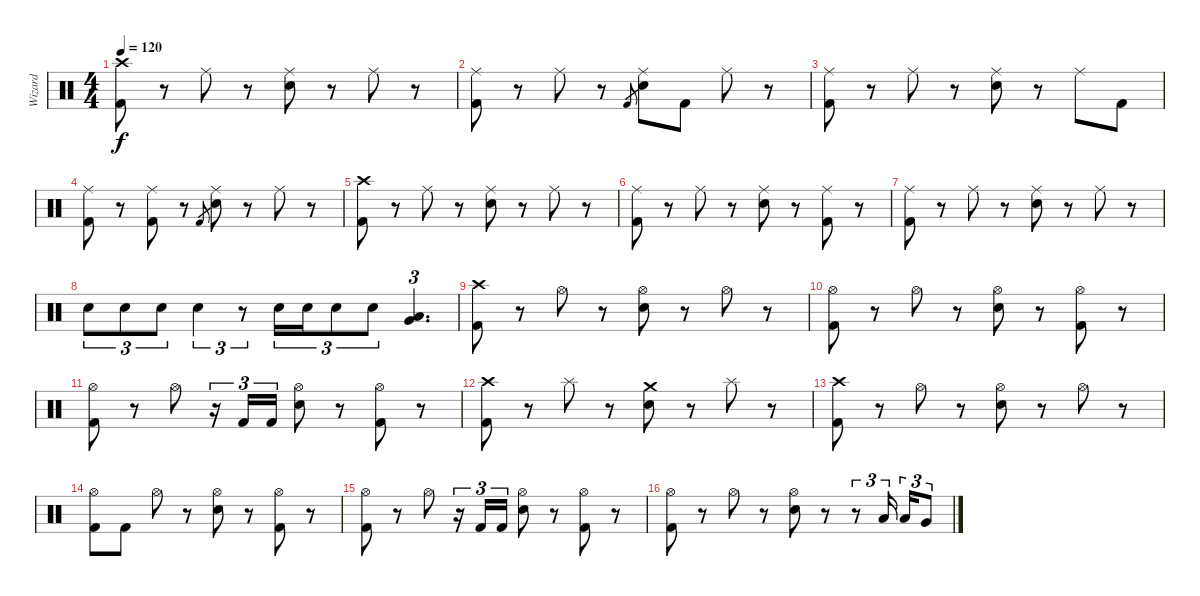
\track ("Wizard" "Wizard") {instrument percussion}
\staff {score}
\articulation defaults
\ts (4 4)
\tempo 120
\clef neutral
\ks c
("Crash high (hit)" "Kick (hit) 2").8{dy f} r.8 "Ride (middle)".8 r.8 ("Ride (middle)" "Snare (hit) 2").8 r.8 "Ride (middle)".8 r.8 |
("Ride (middle)" "Kick (hit) 2").8 r.8 "Ride (middle)".8 r.8 "Kick (hit) 2".8{gr} ("Ride (middle)" "Snare (hit) 2").8 "Kick (hit) 2".8 "Ride (middle)".8 r.8 |
("Ride (middle)" "Kick (hit) 2").8 r.8 "Ride (middle)".8 r.8 ("Ride (middle)" "Snare (hit) 2").8 r.8 "Ride (middle)".8 "Kick (hit) 2".8 |
("Ride (middle)" "Kick (hit) 2").8 r.8 ("Ride (middle)" "Kick (hit) 2").8 r.8 "Kick (hit) 2".8{gr} ("Ride (middle)" "Snare (hit) 2").8 r.8 "Ride (middle)".8 r.8 |
("Crash high (hit)" "Kick (hit) 2").8 r.8 "Ride (middle)".8 r.8 ("Ride (middle)" "Snare (hit) 2").8 r.8 "Ride (middle)".8 r.8 |
("Ride (middle)" "Kick (hit) 2").8 r.8 "Ride (middle)".8 r.8 ("Ride (middle)" "Snare (hit) 2").8 r.8 ("Ride (middle)" "Kick (hit) 2").8 r.8 |
("Ride (middle)" "Kick (hit) 2").8 r.8 "Ride (middle)".8 r.8 ("Ride (middle)" "Snare (hit) 2").8 r.8 "Ride (middle)".8 r.8 |
"Snare (hit) 2".8{tu (3 2)} "Snare (hit) 2".8{tu (3 2)} "Snare (hit) 2".8{tu (3 2)} "Snare (hit) 2".4{tu (3 2)} r.8{tu (3 2)} "Snare (hit) 2".16{tu (3 2)} "Snare (hit) 2".16{tu (3 2)} "Snare (hit) 2".8{tu (3 2)} "Snare (hit) 2".8{tu (3 2)} ("Low Tom (hit)" "Very Low Tom (hit)").4{d tu (3 2)} |
("Crash high (hit)" "Kick (hit) 2").8 r.8 "Hi-Hat (open)".8 r.8 ("Hi-Hat (open)" "Snare (hit) 2").8 r.8 "Hi-Hat (open)".8 r.8 |
("Hi-Hat (open)" "Kick (hit) 2").8 r.8 "Hi-Hat (open)".8 r.8 ("Hi-Hat (open)" "Snare (hit) 2").8 r.8 ("Hi-Hat (open)" "Kick (hit) 2").8 r.8 |
("Hi-Hat (open)" "Kick (hit) 2").8 r.8 "Hi-Hat (open)".8 r.16{tu (3 2)} "Kick (hit) 2".16{tu (3 2)} "Kick (hit) 2".16{tu (3 2)} ("Hi-Hat (open)" "Snare (hit) 2").8 r.8 ("Hi-Hat (open)" "Kick (hit) 2").8 r.8 |
("Crash high (hit)" "Kick (hit) 2").8 r.8 "Splash (hit)".8 r.8 ("Crash medium (hit)" "Snare (hit) 2").8 r.8 "Splash (hit)".8 r.8 |
("Crash high (hit)" "Kick (hit) 2").8 r.8 "Hi-Hat (open)".8 r.8 ("Hi-Hat (open)" "Snare (hit) 2").8 r.8 "Hi-Hat (open)".8 r.8 |
("Hi-Hat (open)" "Kick (hit) 2").8 "Kick (hit) 2".8 "Hi-Hat (open)".8 r.8 ("Hi-Hat (open)" "Snare (hit) 2").8 r.8 ("Hi-Hat (open)" "Kick (hit) 2").8 r.8 |
("Hi-Hat (open)" "Kick (hit) 2").8 r.8 "Hi-Hat (open)".8 r.16{tu (3 2)} "Kick (hit) 2".16{tu (3 2)} "Kick (hit) 2".16{tu (3 2)} ("Hi-Hat (open)" "Snare (hit) 2").8 r.8 ("Hi-Hat (open)" "Kick (hit) 2").8 r.8 |
("Hi-Hat (open)" "Kick (hit) 2").8 r.8 "Hi-Hat (open)".8 r.8 ("Hi-Hat (open)" "Snare (hit) 2").8 r.8 r.8{tu (3 2)} "Low Tom (hit)".16{tu (3 2) beam splitsecondary} "Low Tom (hit)".16{tu (3 2)} "Very Low Tom (hit)".8{tu (3 2)}
